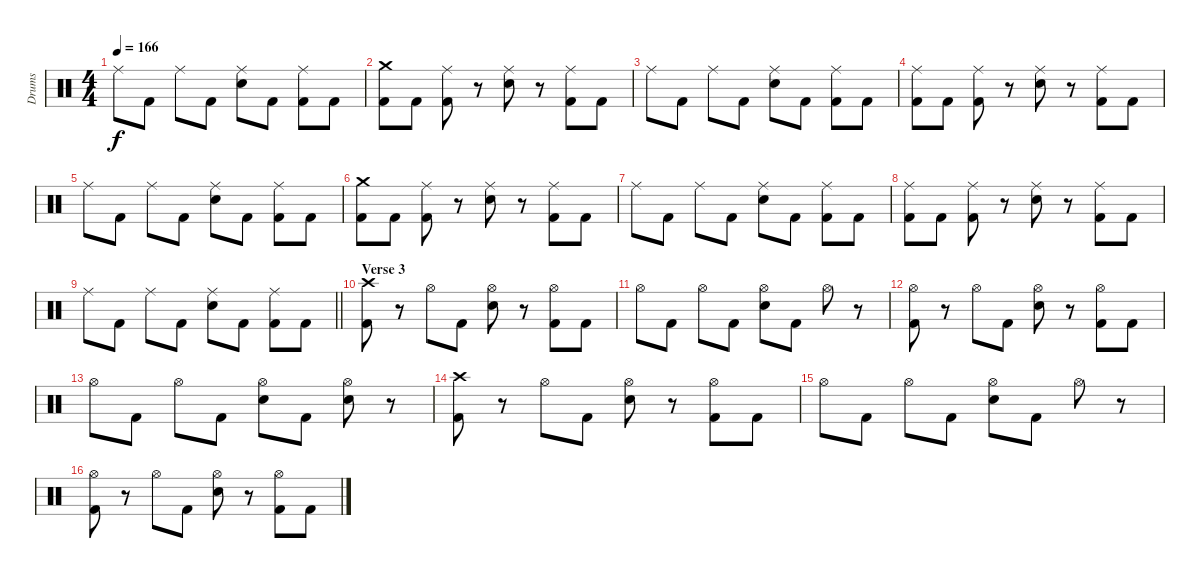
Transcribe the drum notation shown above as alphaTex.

\track ("Drums" "Drums") {instrument percussion}
\staff {score}
\articulation defaults
\ts (4 4)
\tempo 166
\clef neutral
\ks c "Ride (middle)".8{dy f} "Kick (hit) 2".8 "Ride (middle)".8 "Kick (hit) 2".8
("Ride (middle)" "Electric Snare (hit)").8 "Kick (hit) 2".8 ("Ride (middle)" "Kick (hit) 2").8 "Kick (hit) 2".8 |
("Crash medium (hit)" "Kick (hit) 2").8 "Kick (hit) 2".8 ("Ride (middle)" "Kick (hit) 2").8 r.8 ("Ride (middle)" "Electric Snare (hit)").8 r.8 ("Ride (middle)" "Kick (hit) 2").8 "Kick (hit) 2".8 |
"Ride (middle)".8 "Kick (hit) 2".8 "Ride (middle)".8 "Kick (hit) 2".8 ("Ride (middle)" "Electric Snare (hit)").8 "Kick (hit) 2".8 ("Ride (middle)" "Kick (hit) 2").8 "Kick (hit) 2".8 |
("Ride (middle)" "Kick (hit) 2").8 "Kick (hit) 2".8 ("Ride (middle)" "Kick (hit) 2").8 r.8 ("Ride (middle)" "Electric Snare (hit)").8 r.8 ("Ride (middle)" "Kick (hit) 2").8 "Kick (hit) 2".8 |
"Ride (middle)".8 "Kick (hit) 2".8 "Ride (middle)".8 "Kick (hit) 2".8 ("Ride (middle)" "Electric Snare (hit)").8 "Kick (hit) 2".8 ("Ride (middle)" "Kick (hit) 2").8 "Kick (hit) 2".8 |
("Crash medium (hit)" "Kick (hit) 2").8 "Kick (hit) 2".8 ("Ride (middle)" "Kick (hit) 2").8 r.8 ("Ride (middle)" "Electric Snare (hit)").8 r.8 ("Ride (middle)" "Kick (hit) 2").8 "Kick (hit) 2".8 |
"Ride (middle)".8 "Kick (hit) 2".8 "Ride (middle)".8 "Kick (hit) 2".8 ("Ride (middle)" "Electric Snare (hit)").8 "Kick (hit) 2".8 ("Ride (middle)" "Kick (hit) 2").8 "Kick (hit) 2".8 |
("Ride (middle)" "Kick (hit) 2").8 "Kick (hit) 2".8 ("Ride (middle)" "Kick (hit) 2").8 r.8 ("Ride (middle)" "Electric Snare (hit)").8 r.8 ("Ride (middle)" "Kick (hit) 2").8 "Kick (hit) 2".8 |
\barLineRight lightlight "Ride (middle)".8 "Kick (hit) 2".8 "Ride (middle)".8 "Kick (hit) 2".8
("Ride (middle)" "Electric Snare (hit)").8 "Kick (hit) 2".8 ("Ride (middle)" "Kick (hit) 2").8 "Kick (hit) 2".8 |
\section ("" "Verse 3")
("Crash high (hit)" "Kick (hit) 2").8 r.8 "Hi-Hat (open)".8 "Kick (hit) 2".8 ("Hi-Hat (open)" "Electric Snare (hit)").8 r.8 ("Hi-Hat (open)" "Kick (hit) 2").8 "Kick (hit) 2".8 |
"Hi-Hat (open)".8 "Kick (hit) 2".8 "Hi-Hat (open)".8 "Kick (hit) 2".8 ("Hi-Hat (open)" "Electric Snare (hit)").8 "Kick (hit) 2".8 "Hi-Hat (open)".8 r.8 |
("Hi-Hat (open)" "Kick (hit) 2").8 r.8 "Hi-Hat (open)".8 "Kick (hit) 2".8 ("Hi-Hat (open)" "Electric Snare (hit)").8 r.8 ("Hi-Hat (open)" "Kick (hit) 2").8 "Kick (hit) 2".8 |
"Hi-Hat (open)".8 "Kick (hit) 2".8 "Hi-Hat (open)".8 "Kick (hit) 2".8 ("Hi-Hat (open)" "Electric Snare (hit)").8 "Kick (hit) 2".8 ("Hi-Hat (open)" "Electric Snare (hit)").8 r.8 |
("Crash high (hit)" "Kick (hit) 2").8 r.8 "Hi-Hat (open)".8 "Kick (hit) 2".8 ("Hi-Hat (open)" "Electric Snare (hit)").8 r.8 ("Hi-Hat (open)" "Kick (hit) 2").8 "Kick (hit) 2".8 |
"Hi-Hat (open)".8 "Kick (hit) 2".8 "Hi-Hat (open)".8 "Kick (hit) 2".8 ("Hi-Hat (open)" "Electric Snare (hit)").8 "Kick (hit) 2".8 "Hi-Hat (open)".8 r.8 |
("Hi-Hat (open)" "Kick (hit) 2").8 r.8 "Hi-Hat (open)".8 "Kick (hit) 2".8 ("Hi-Hat (open)" "Electric Snare (hit)").8 r.8 ("Hi-Hat (open)" "Kick (hit) 2").8 "Kick (hit) 2".8
